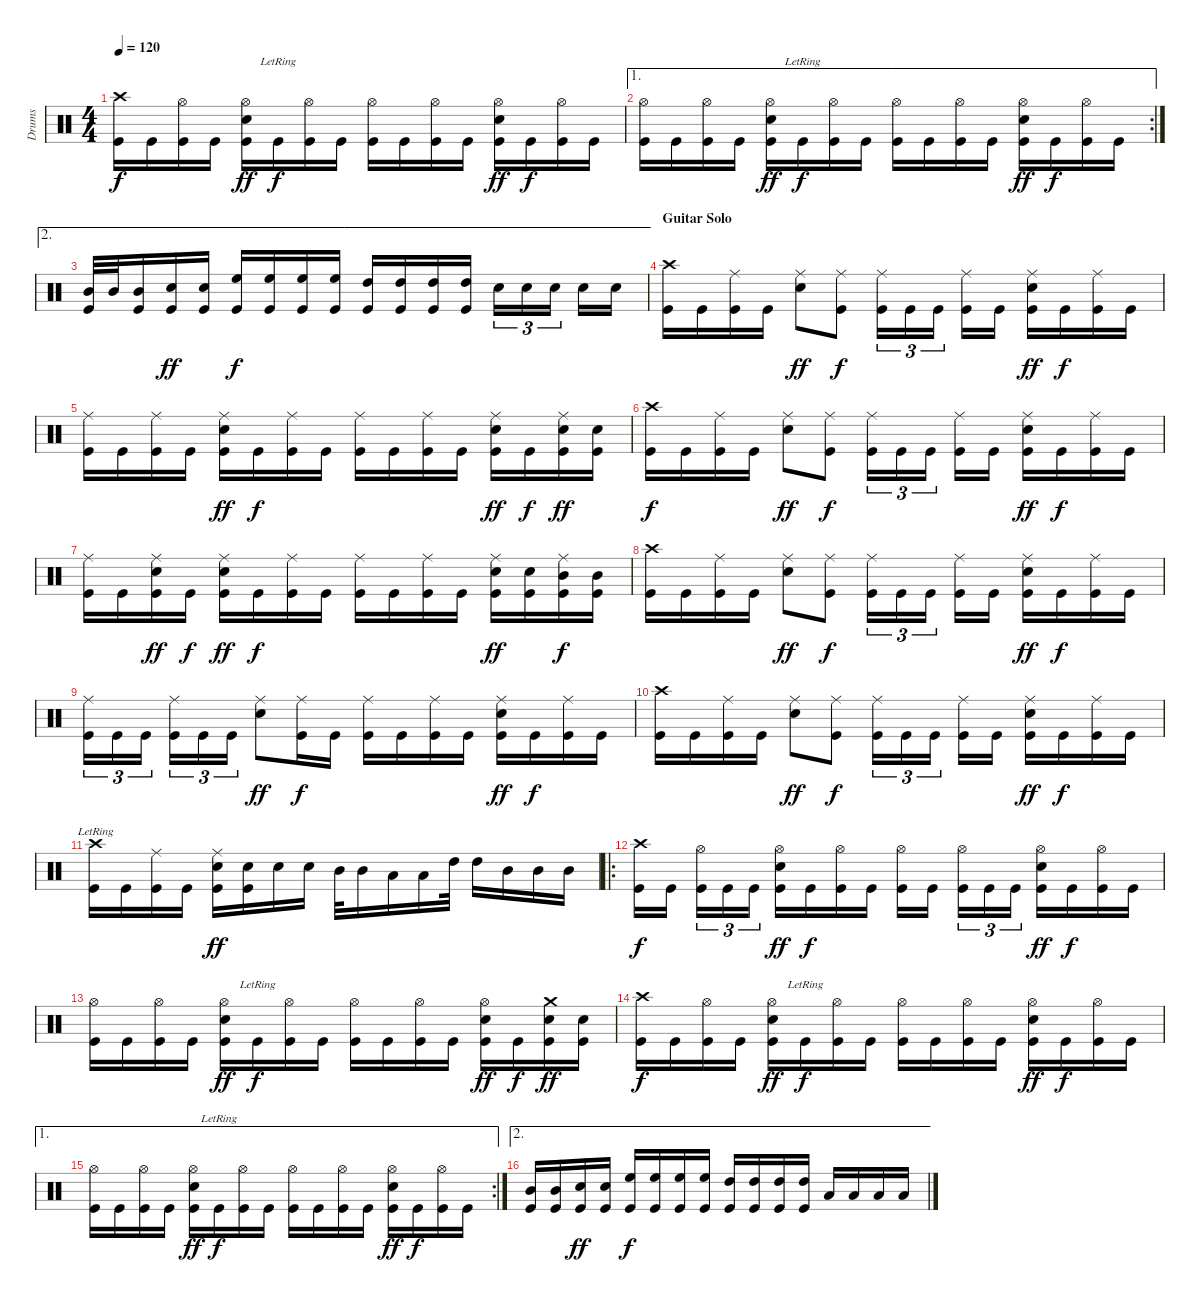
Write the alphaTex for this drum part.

\track ("Drums" "Drums") {instrument percussion}
\staff {score}
\articulation defaults
\ts (4 4)
\tempo 120
\clef neutral
\ks c
("Crash high (hit)" "Kick (hit)").16{dy f} "Kick (hit)".16 ("Hi-Hat (open)" "Kick (hit)").16 "Kick (hit)".16 ("Hi-Hat (open)" "Electric Snare (hit)" "Kick (hit)").16{dy ff} "Kick (hit)"{lr}.16{dy f} ("Hi-Hat (open)" "Kick (hit)").16 "Kick (hit)".16 ("Hi-Hat (open)" "Kick (hit)").16 "Kick (hit)".16 ("Hi-Hat (open)" "Kick (hit)").16 "Kick (hit)".16 ("Hi-Hat (open)" "Electric Snare (hit)" "Kick (hit)").16{dy ff} "Kick (hit)".16{dy f} ("Hi-Hat (open)" "Kick (hit)").16 "Kick (hit)".16 |
\ae 1
\rc 2
("Hi-Hat (open)" "Kick (hit)").16 "Kick (hit)".16 ("Hi-Hat (open)" "Kick (hit)").16 "Kick (hit)".16 ("Hi-Hat (open)" "Electric Snare (hit)" "Kick (hit)").16{dy ff} "Kick (hit)"{lr}.16{dy f} ("Hi-Hat (open)" "Kick (hit)").16 "Kick (hit)".16 ("Hi-Hat (open)" "Kick (hit)").16 "Kick (hit)".16 ("Hi-Hat (open)" "Kick (hit)").16 "Kick (hit)".16 ("Hi-Hat (open)" "Electric Snare (hit)" "Kick (hit)").16{dy ff} "Kick (hit)".16{dy f} ("Hi-Hat (open)" "Kick (hit)").16 "Kick (hit)".16 |
\ae 2
("Mid Tom (hit)" "Kick (hit)").32 "Mid Tom (hit)".32 ("Mid Tom (hit)" "Kick (hit)").16 ("Electric Snare (hit)" "Kick (hit)").16{dy ff} ("Electric Snare (hit)" "Kick (hit)").16 ("High Floor Tom (hit)" "Kick (hit)").16{dy f} ("High Floor Tom (hit)" "Kick (hit)").16 ("High Floor Tom (hit)" "Kick (hit)").16 ("High Floor Tom (hit)" "Kick (hit)").16 ("High Tom (hit)" "Kick (hit)").16 ("High Tom (hit)" "Kick (hit)").16 ("High Tom (hit)" "Kick (hit)").16 ("High Tom (hit)" "Kick (hit)").16 "Electric Snare (hit)".16{tu (3 2)} "Electric Snare (hit)".16{tu (3 2)} "Electric Snare (hit)".16{tu (3 2)} "Electric Snare (hit)".16 "Electric Snare (hit)".16 |
\section ("" "Guitar Solo")
("Crash high (hit)" "Kick (hit)").16 "Kick (hit)".16 ("Ride (middle)" "Kick (hit)").16 "Kick (hit)".16 ("Ride (middle)" "Electric Snare (hit)").8{dy ff} ("Ride (middle)" "Kick (hit)").8{dy f} ("Ride (middle)" "Kick (hit)").16{tu (3 2)} "Kick (hit)".16{tu (3 2)} "Kick (hit)".16{tu (3 2)} ("Ride (middle)" "Kick (hit)").16 "Kick (hit)".16 ("Ride (middle)" "Electric Snare (hit)" "Kick (hit)").16{dy ff} "Kick (hit)".16{dy f} ("Ride (middle)" "Kick (hit)").16 "Kick (hit)".16 |
("Ride (middle)" "Kick (hit)").16 "Kick (hit)".16 ("Ride (middle)" "Kick (hit)").16 "Kick (hit)".16 ("Ride (middle)" "Electric Snare (hit)" "Kick (hit)").16{dy ff} "Kick (hit)".16{dy f} ("Ride (middle)" "Kick (hit)").16 "Kick (hit)".16 ("Ride (middle)" "Kick (hit)").16 "Kick (hit)".16 ("Ride (middle)" "Kick (hit)").16 "Kick (hit)".16 ("Ride (middle)" "Electric Snare (hit)" "Kick (hit)").16{dy ff} "Kick (hit)".16{dy f} ("Ride (middle)" "Electric Snare (hit)" "Kick (hit)").16{dy ff} ("Electric Snare (hit)" "Kick (hit)").16 |
("Crash high (hit)" "Kick (hit)").16{dy f} "Kick (hit)".16 ("Ride (middle)" "Kick (hit)").16 "Kick (hit)".16 ("Ride (middle)" "Electric Snare (hit)").8{dy ff} ("Ride (middle)" "Kick (hit)").8{dy f} ("Ride (middle)" "Kick (hit)").16{tu (3 2)} "Kick (hit)".16{tu (3 2)} "Kick (hit)".16{tu (3 2)} ("Ride (middle)" "Kick (hit)").16 "Kick (hit)".16 ("Ride (middle)" "Electric Snare (hit)" "Kick (hit)").16{dy ff} "Kick (hit)".16{dy f} ("Ride (middle)" "Kick (hit)").16 "Kick (hit)".16 |
("Ride (middle)" "Kick (hit)").16 "Kick (hit)".16 ("Ride (middle)" "Electric Snare (hit)" "Kick (hit)").16{dy ff} "Kick (hit)".16{dy f} ("Ride (middle)" "Electric Snare (hit)" "Kick (hit)").16{dy ff} "Kick (hit)".16{dy f} ("Ride (middle)" "Kick (hit)").16 "Kick (hit)".16 ("Ride (middle)" "Kick (hit)").16 "Kick (hit)".16 ("Ride (middle)" "Kick (hit)").16 "Kick (hit)".16 ("Ride (middle)" "Electric Snare (hit)" "Kick (hit)").16{dy ff} ("Electric Snare (hit)" "Kick (hit)").16 ("Ride (middle)" "Mid Tom (hit)" "Kick (hit)").16{dy f} ("Mid Tom (hit)" "Kick (hit)").16 |
("Crash high (hit)" "Kick (hit)").16 "Kick (hit)".16 ("Ride (middle)" "Kick (hit)").16 "Kick (hit)".16 ("Ride (middle)" "Electric Snare (hit)").8{dy ff} ("Ride (middle)" "Kick (hit)").8{dy f} ("Ride (middle)" "Kick (hit)").16{tu (3 2)} "Kick (hit)".16{tu (3 2)} "Kick (hit)".16{tu (3 2)} ("Ride (middle)" "Kick (hit)").16 "Kick (hit)".16 ("Ride (middle)" "Electric Snare (hit)" "Kick (hit)").16{dy ff} "Kick (hit)".16{dy f} ("Ride (middle)" "Kick (hit)").16 "Kick (hit)".16 |
("Ride (middle)" "Kick (hit)").16{tu (3 2)} "Kick (hit)".16{tu (3 2)} "Kick (hit)".16{tu (3 2)} ("Ride (middle)" "Kick (hit)").16{tu (3 2)} "Kick (hit)".16{tu (3 2)} "Kick (hit)".16{tu (3 2)} ("Ride (middle)" "Electric Snare (hit)").8{dy ff} ("Ride (middle)" "Kick (hit)").16{dy f} "Kick (hit)".16 ("Ride (middle)" "Kick (hit)").16 "Kick (hit)".16 ("Ride (middle)" "Kick (hit)").16 "Kick (hit)".16 ("Ride (middle)" "Electric Snare (hit)" "Kick (hit)").16{dy ff} "Kick (hit)".16{dy f} ("Ride (middle)" "Kick (hit)").16 "Kick (hit)".16 |
("Crash high (hit)" "Kick (hit)").16 "Kick (hit)".16 ("Ride (middle)" "Kick (hit)").16 "Kick (hit)".16 ("Ride (middle)" "Electric Snare (hit)").8{dy ff} ("Ride (middle)" "Kick (hit)").8{dy f} ("Ride (middle)" "Kick (hit)").16{tu (3 2)} "Kick (hit)".16{tu (3 2)} "Kick (hit)".16{tu (3 2)} ("Ride (middle)" "Kick (hit)").16 "Kick (hit)".16 ("Ride (middle)" "Electric Snare (hit)" "Kick (hit)").16{dy ff} "Kick (hit)".16{dy f} ("Ride (middle)" "Kick (hit)").16 "Kick (hit)".16 |
("Crash high (hit)"{lr} "Kick (hit)").16 "Kick (hit)".16 ("Ride (middle)" "Kick (hit)").16 "Kick (hit)".16 ("Ride (middle)" "Electric Snare (hit)" "Kick (hit)").16{dy ff} ("Electric Snare (hit)" "Kick (hit)").16 "Electric Snare (hit)".16 "Electric Snare (hit)".16 "Mid Tom (hit)".32 "Mid Tom (hit)".16 "Low Tom (hit)".16 "Low Tom (hit)".16 "High Tom (hit)".32 "High Tom (hit)".16 "Mid Tom (hit)".16 "Mid Tom (hit)".16 "Mid Tom (hit)".16 |
\ro
("Crash high (hit)" "Kick (hit)").16{dy f} "Kick (hit)".16 ("Hi-Hat (open)" "Kick (hit)").16{tu (3 2)} "Kick (hit)".16{tu (3 2)} "Kick (hit)".16{tu (3 2)} ("Hi-Hat (open)" "Electric Snare (hit)" "Kick (hit)").16{dy ff} "Kick (hit)".16{dy f} ("Hi-Hat (open)" "Kick (hit)").16 "Kick (hit)".16 ("Hi-Hat (open)" "Kick (hit)").16 "Kick (hit)".16 ("Hi-Hat (open)" "Kick (hit)").16{tu (3 2)} "Kick (hit)".16{tu (3 2)} "Kick (hit)".16{tu (3 2)} ("Hi-Hat (open)" "Electric Snare (hit)" "Kick (hit)").16{dy ff} "Kick (hit)".16{dy f} ("Hi-Hat (open)" "Kick (hit)").16 "Kick (hit)".16 |
("Hi-Hat (open)" "Kick (hit)").16 "Kick (hit)".16 ("Hi-Hat (open)" "Kick (hit)").16 "Kick (hit)".16 ("Hi-Hat (open)" "Electric Snare (hit)" "Kick (hit)").16{dy ff} "Kick (hit)"{lr}.16{dy f} ("Hi-Hat (open)" "Kick (hit)").16 "Kick (hit)".16 ("Hi-Hat (open)" "Kick (hit)").16 "Kick (hit)".16 ("Hi-Hat (open)" "Kick (hit)").16 "Kick (hit)".16 ("Hi-Hat (open)" "Electric Snare (hit)" "Kick (hit)").16{dy ff} "Kick (hit)".16{dy f} ("Crash medium (hit)" "Electric Snare (hit)" "Kick (hit)").16{dy ff} ("Electric Snare (hit)" "Kick (hit)").16 |
("Crash high (hit)" "Kick (hit)").16{dy f} "Kick (hit)".16 ("Hi-Hat (open)" "Kick (hit)").16 "Kick (hit)".16 ("Hi-Hat (open)" "Electric Snare (hit)" "Kick (hit)").16{dy ff} "Kick (hit)"{lr}.16{dy f} ("Hi-Hat (open)" "Kick (hit)").16 "Kick (hit)".16 ("Hi-Hat (open)" "Kick (hit)").16 "Kick (hit)".16 ("Hi-Hat (open)" "Kick (hit)").16 "Kick (hit)".16 ("Hi-Hat (open)" "Electric Snare (hit)" "Kick (hit)").16{dy ff} "Kick (hit)".16{dy f} ("Hi-Hat (open)" "Kick (hit)").16 "Kick (hit)".16 |
\ae 1
\rc 2
("Hi-Hat (open)" "Kick (hit)").16 "Kick (hit)".16 ("Hi-Hat (open)" "Kick (hit)").16 "Kick (hit)".16 ("Hi-Hat (open)" "Electric Snare (hit)" "Kick (hit)").16{dy ff} "Kick (hit)"{lr}.16{dy f} ("Hi-Hat (open)" "Kick (hit)").16 "Kick (hit)".16 ("Hi-Hat (open)" "Kick (hit)").16 "Kick (hit)".16 ("Hi-Hat (open)" "Kick (hit)").16 "Kick (hit)".16 ("Hi-Hat (open)" "Electric Snare (hit)" "Kick (hit)").16{dy ff} "Kick (hit)".16{dy f} ("Hi-Hat (open)" "Kick (hit)").16 "Kick (hit)".16 |
\ae 2
("Mid Tom (hit)" "Kick (hit)").16 ("Mid Tom (hit)" "Kick (hit)").16 ("Electric Snare (hit)" "Kick (hit)").16{dy ff} ("Electric Snare (hit)" "Kick (hit)").16 ("High Floor Tom (hit)" "Kick (hit)").16{dy f} ("High Floor Tom (hit)" "Kick (hit)").16 ("High Floor Tom (hit)" "Kick (hit)").16 ("High Floor Tom (hit)" "Kick (hit)").16 ("High Tom (hit)" "Kick (hit)").16 ("High Tom (hit)" "Kick (hit)").16 ("High Tom (hit)" "Kick (hit)").16 ("High Tom (hit)" "Kick (hit)").16 "Low Tom (hit)".16 "Low Tom (hit)".16 "Low Tom (hit)".16 "Low Tom (hit)".16
